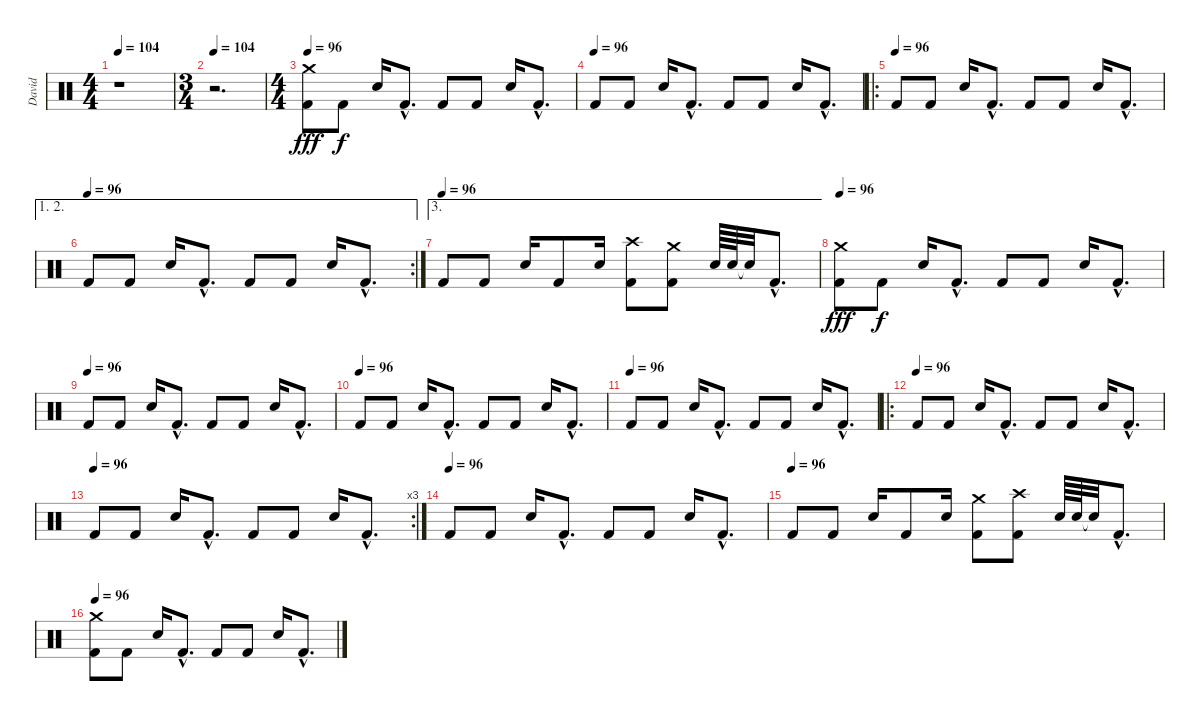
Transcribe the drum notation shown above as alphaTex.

\track ("David" "David") {instrument percussion}
\staff {score}
\articulation defaults
\ts (4 4)
\tempo 104
\clef neutral
\ks c
r.1{dy f} |
\ts (3 4)
\tempo 104
r.2{d} |
\ts (4 4)
\tempo 96
("Crash medium (hit)" "Kick (hit) 2").8{dy fff} "Kick (hit) 2".8{dy f} "Snare (hit) 2".16 "Kick (hit) 2"{hac}.8{d} "Kick (hit) 2".8 "Kick (hit) 2".8 "Snare (hit) 2".16 "Kick (hit) 2"{hac}.8{d} |
\tempo (96)
"Kick (hit) 2".8 "Kick (hit) 2".8 "Snare (hit) 2".16 "Kick (hit) 2"{hac}.8{d} "Kick (hit) 2".8 "Kick (hit) 2".8 "Snare (hit) 2".16 "Kick (hit) 2"{hac}.8{d} |
\ro
\tempo (96)
"Kick (hit) 2".8 "Kick (hit) 2".8 "Snare (hit) 2".16 "Kick (hit) 2"{hac}.8{d} "Kick (hit) 2".8 "Kick (hit) 2".8 "Snare (hit) 2".16 "Kick (hit) 2"{hac}.8{d} |
\ae (1 2)
\rc 2
\tempo (96)
"Kick (hit) 2".8 "Kick (hit) 2".8 "Snare (hit) 2".16 "Kick (hit) 2"{hac}.8{d} "Kick (hit) 2".8 "Kick (hit) 2".8 "Snare (hit) 2".16 "Kick (hit) 2"{hac}.8{d} |
\ae 3
\tempo (96)
"Kick (hit) 2".8 "Kick (hit) 2".8 "Snare (hit) 2".16 "Kick (hit) 2".8 "Snare (hit) 2".16 ("Crash high (hit)" "Kick (hit) 2").8 ("Crash medium (hit)" "Kick (hit) 2").8 "Snare (hit) 2".64 "Snare (hit) 2".64 "Snare (hit)"{t}.32 "Kick (hit) 2"{hac}.8{d} |
\tempo 96
("Crash medium (hit)" "Kick (hit) 2").8{dy fff} "Kick (hit) 2".8{dy f} "Snare (hit) 2".16 "Kick (hit) 2"{hac}.8{d} "Kick (hit) 2".8 "Kick (hit) 2".8 "Snare (hit) 2".16 "Kick (hit) 2"{hac}.8{d} |
\tempo (96)
"Kick (hit) 2".8 "Kick (hit) 2".8 "Snare (hit) 2".16 "Kick (hit) 2"{hac}.8{d} "Kick (hit) 2".8 "Kick (hit) 2".8 "Snare (hit) 2".16 "Kick (hit) 2"{hac}.8{d} |
\tempo (96)
"Kick (hit) 2".8 "Kick (hit) 2".8 "Snare (hit) 2".16 "Kick (hit) 2"{hac}.8{d} "Kick (hit) 2".8 "Kick (hit) 2".8 "Snare (hit) 2".16 "Kick (hit) 2"{hac}.8{d} |
\tempo (96)
"Kick (hit) 2".8 "Kick (hit) 2".8 "Snare (hit) 2".16 "Kick (hit) 2"{hac}.8{d} "Kick (hit) 2".8 "Kick (hit) 2".8 "Snare (hit) 2".16 "Kick (hit) 2"{hac}.8{d} |
\ro
\tempo (96)
"Kick (hit) 2".8 "Kick (hit) 2".8 "Snare (hit) 2".16 "Kick (hit) 2"{hac}.8{d} "Kick (hit) 2".8 "Kick (hit) 2".8 "Snare (hit) 2".16 "Kick (hit) 2"{hac}.8{d} |
\rc 3
\tempo (96)
"Kick (hit) 2".8 "Kick (hit) 2".8 "Snare (hit) 2".16 "Kick (hit) 2"{hac}.8{d} "Kick (hit) 2".8 "Kick (hit) 2".8 "Snare (hit) 2".16 "Kick (hit) 2"{hac}.8{d} |
\tempo (96)
"Kick (hit) 2".8 "Kick (hit) 2".8 "Snare (hit) 2".16 "Kick (hit) 2"{hac}.8{d} "Kick (hit) 2".8 "Kick (hit) 2".8 "Snare (hit) 2".16 "Kick (hit) 2"{hac}.8{d} |
\tempo (96)
"Kick (hit) 2".8 "Kick (hit) 2".8 "Snare (hit) 2".16 "Kick (hit) 2".8 "Snare (hit) 2".16 ("Crash medium (hit)" "Kick (hit) 2").8 ("Crash high (hit)" "Kick (hit) 2").8 "Snare (hit) 2".64 "Snare (hit) 2".64 "Snare (hit)"{t}.32 "Kick (hit) 2"{hac}.8{d} |
\tempo 96
("Crash medium (hit)" "Kick (hit) 2").8 "Kick (hit) 2".8 "Snare (hit) 2".16 "Kick (hit) 2"{hac}.8{d} "Kick (hit) 2".8 "Kick (hit) 2".8 "Snare (hit) 2".16 "Kick (hit) 2"{hac}.8{d}
